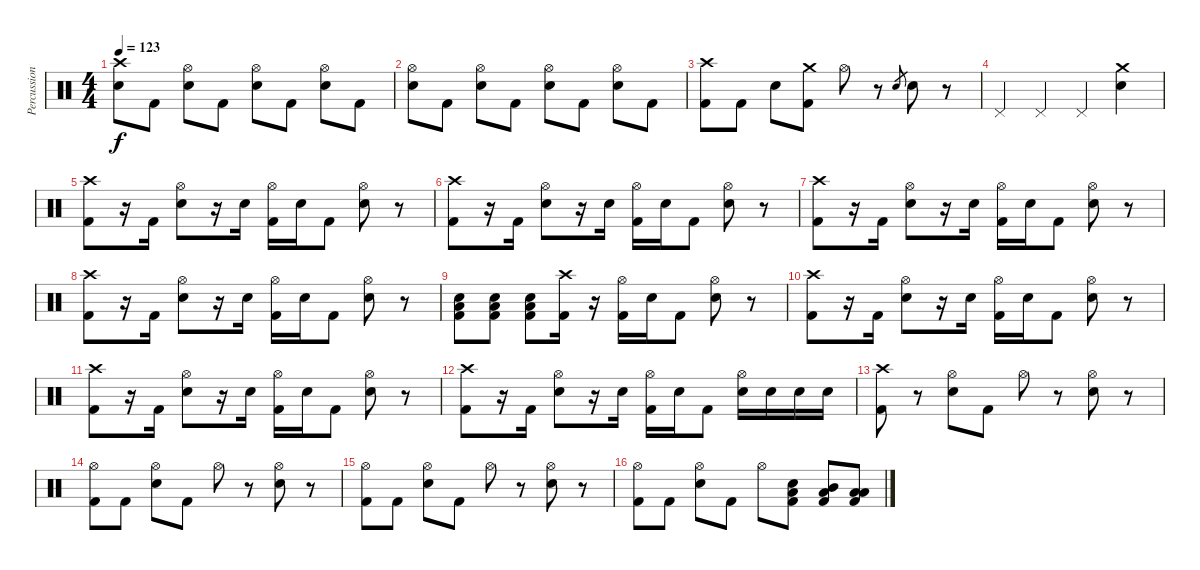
\track ("Percussioni" "Percussion") {instrument percussion}
\staff {score}
\articulation defaults
\ts (4 4)
\tempo 123
\clef neutral
\ks c
("Crash high (hit)" "Electric Snare (hit)").8{dy f} "Kick (hit) 2".8 ("Hi-Hat (open)" "Electric Snare (hit)").8 "Kick (hit) 2".8 ("Hi-Hat (open)" "Electric Snare (hit)").8 "Kick (hit) 2".8 ("Hi-Hat (open)" "Electric Snare (hit)").8 "Kick (hit) 2".8 |
("Hi-Hat (open)" "Electric Snare (hit)").8 "Kick (hit) 2".8 ("Hi-Hat (open)" "Electric Snare (hit)").8 "Kick (hit) 2".8 ("Hi-Hat (open)" "Electric Snare (hit)").8 "Kick (hit) 2".8 ("Hi-Hat (open)" "Electric Snare (hit)").8 "Kick (hit) 2".8 |
("Crash high (hit)" "Kick (hit) 2").8 "Kick (hit) 2".8 "Electric Snare (hit)".8 ("Crash medium (hit)" "Kick (hit) 2").8 "Hi-Hat (open)".8 r.8 "Electric Snare (hit)".8{gr} "Electric Snare (hit)".8 r.8 |
"Pedal Hi-Hat (hit)".4 "Pedal Hi-Hat (hit)".4 "Pedal Hi-Hat (hit)".4 ("Crash medium (hit)" "Electric Snare (hit)").4 |
("Crash high (hit)" "Kick (hit) 2").8 r.16 "Kick (hit) 2".16 ("Hi-Hat (open)" "Electric Snare (hit)").8 r.16 "Electric Snare (hit)".16 ("Hi-Hat (open)" "Kick (hit) 2").16 "Electric Snare (hit)".16 "Kick (hit) 2".8 ("Hi-Hat (open)" "Electric Snare (hit)").8 r.8 |
("Crash high (hit)" "Kick (hit) 2").8 r.16 "Kick (hit) 2".16 ("Hi-Hat (open)" "Electric Snare (hit)").8 r.16 "Electric Snare (hit)".16 ("Hi-Hat (open)" "Kick (hit) 2").16 "Electric Snare (hit)".16 "Kick (hit) 2".8 ("Hi-Hat (open)" "Electric Snare (hit)").8 r.8 |
("Crash high (hit)" "Kick (hit) 2").8 r.16 "Kick (hit) 2".16 ("Hi-Hat (open)" "Electric Snare (hit)").8 r.16 "Electric Snare (hit)".16 ("Hi-Hat (open)" "Kick (hit) 2").16 "Electric Snare (hit)".16 "Kick (hit) 2".8 ("Hi-Hat (open)" "Electric Snare (hit)").8 r.8 |
("Crash high (hit)" "Kick (hit) 2").8 r.16 "Kick (hit) 2".16 ("Hi-Hat (open)" "Electric Snare (hit)").8 r.16 "Electric Snare (hit)".16 ("Hi-Hat (open)" "Kick (hit) 2").16 "Electric Snare (hit)".16 "Kick (hit) 2".8 ("Hi-Hat (open)" "Electric Snare (hit)").8 r.8 |
("Kick (hit) 2" "Low Floor Tom (hit)" "Electric Snare (hit)").8 ("Kick (hit) 2" "Low Floor Tom (hit)" "Electric Snare (hit)").8 ("Low Tom (hit)" "Electric Snare (hit)" "Kick (hit) 2").8 ("Crash high (hit)" "Kick (hit) 2").16 r.16 ("Hi-Hat (open)" "Kick (hit) 2").16 "Electric Snare (hit)".16 "Kick (hit) 2".8 ("Hi-Hat (open)" "Electric Snare (hit)").8 r.8 |
("Crash high (hit)" "Kick (hit) 2").8 r.16 "Kick (hit) 2".16 ("Hi-Hat (open)" "Electric Snare (hit)").8 r.16 "Electric Snare (hit)".16 ("Hi-Hat (open)" "Kick (hit) 2").16 "Electric Snare (hit)".16 "Kick (hit) 2".8 ("Hi-Hat (open)" "Electric Snare (hit)").8 r.8 |
("Crash high (hit)" "Kick (hit) 2").8 r.16 "Kick (hit) 2".16 ("Hi-Hat (open)" "Electric Snare (hit)").8 r.16 "Electric Snare (hit)".16 ("Hi-Hat (open)" "Kick (hit) 2").16 "Electric Snare (hit)".16 "Kick (hit) 2".8 ("Hi-Hat (open)" "Electric Snare (hit)").8 r.8 |
("Crash high (hit)" "Kick (hit) 2").8 r.16 "Kick (hit) 2".16 ("Hi-Hat (open)" "Electric Snare (hit)").8 r.16 "Electric Snare (hit)".16 ("Hi-Hat (open)" "Kick (hit) 2").16 "Electric Snare (hit)".16 "Kick (hit) 2".8 ("Hi-Hat (open)" "Electric Snare (hit)").16 "Electric Snare (hit)".16 "Electric Snare (hit)".16 "Electric Snare (hit)".16 |
("Crash high (hit)" "Kick (hit) 2").8 r.8 ("Hi-Hat (open)" "Electric Snare (hit)").8 "Kick (hit) 2".8 "Hi-Hat (open)".8 r.8 ("Hi-Hat (open)" "Electric Snare (hit)").8 r.8 |
("Hi-Hat (open)" "Kick (hit) 2").8 "Kick (hit) 2".8 ("Hi-Hat (open)" "Electric Snare (hit)").8 "Kick (hit) 2".8 "Hi-Hat (open)".8 r.8 ("Hi-Hat (open)" "Electric Snare (hit)").8 r.8 |
("Hi-Hat (open)" "Kick (hit) 2").8 "Kick (hit) 2".8 ("Hi-Hat (open)" "Electric Snare (hit)").8 "Kick (hit) 2".8 "Hi-Hat (open)".8 r.8 ("Hi-Hat (open)" "Electric Snare (hit)").8 r.8 |
("Hi-Hat (open)" "Kick (hit) 2").8 "Kick (hit) 2".8 ("Hi-Hat (open)" "Electric Snare (hit)").8 "Kick (hit) 2".8 "Hi-Hat (open)".8 ("Kick (hit) 2" "Low Floor Tom (hit)" "Electric Snare (hit)").8 ("Kick (hit) 2" "Mid Tom (hit)" "Low Tom (hit)").8 ("Kick (hit) 2" "Low Tom (hit)" "Low Floor Tom (hit)").8
